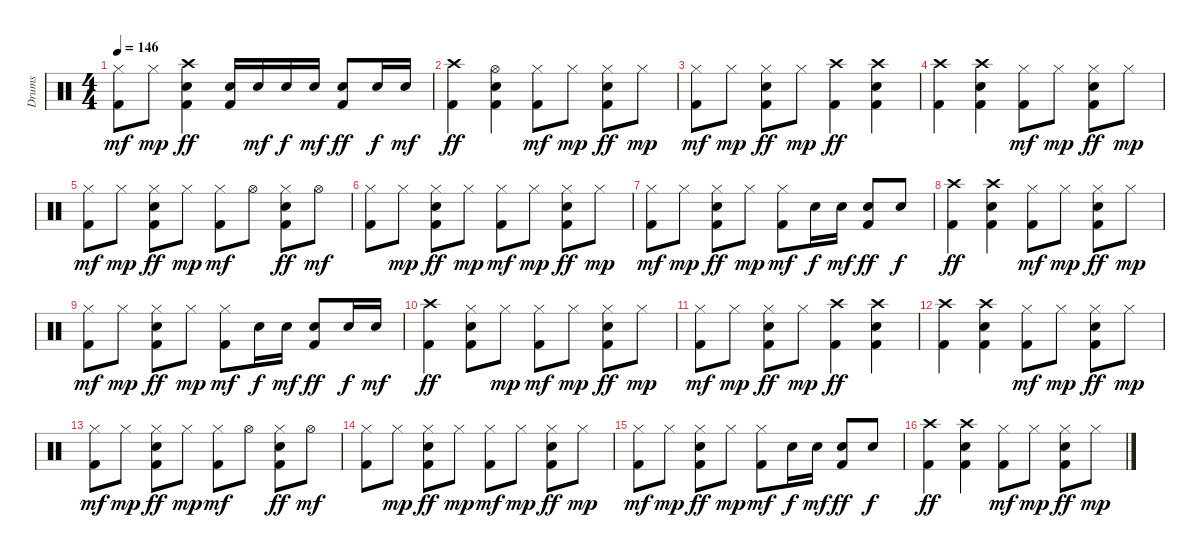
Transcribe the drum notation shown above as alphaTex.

\track ("Drums" "Drums") {instrument percussion}
\staff {score}
\articulation defaults
\ts (4 4)
\tempo 146
\clef neutral
\ks c
("Kick (hit) 2" "Hi-Hat (closed)").8{dy mf} "Hi-Hat (closed)".8{dy mp} ("Kick (hit) 2" "Snare (hit) 2" "Crash high (hit)").4{dy ff} ("Kick (hit) 2" "Snare (hit) 2").16 "Snare (hit) 2".16{dy mf} "Snare (hit) 2".16{dy f} "Snare (hit) 2".16{dy mf} ("Kick (hit) 2" "Snare (hit) 2").8{dy ff} "Snare (hit) 2".16{dy f} "Snare (hit) 2".16{dy mf} |
("Kick (hit) 2" "Crash high (hit)").4{dy ff} ("Kick (hit) 2" "Snare (hit) 2" "Hi-Hat (open)").4 ("Kick (hit) 2" "Hi-Hat (closed)").8{dy mf} "Hi-Hat (closed)".8{dy mp} ("Kick (hit) 2" "Snare (hit) 2" "Hi-Hat (closed)").8{dy ff} "Hi-Hat (closed)".8{dy mp} |
("Kick (hit) 2" "Hi-Hat (closed)").8{dy mf} "Hi-Hat (closed)".8{dy mp} ("Kick (hit) 2" "Snare (hit) 2" "Hi-Hat (closed)").8{dy ff} "Hi-Hat (closed)".8{dy mp} ("Kick (hit) 2" "Crash high (hit)").4{dy ff} ("Kick (hit) 2" "Snare (hit) 2" "Crash high (hit)").4 |
("Kick (hit) 2" "Crash high (hit)").4 ("Kick (hit) 2" "Snare (hit) 2" "Crash high (hit)").4 ("Kick (hit) 2" "Hi-Hat (closed)").8{dy mf} "Hi-Hat (closed)".8{dy mp} ("Kick (hit) 2" "Snare (hit) 2" "Hi-Hat (closed)").8{dy ff} "Hi-Hat (closed)".8{dy mp} |
("Kick (hit) 2" "Hi-Hat (closed)").8{dy mf} "Hi-Hat (closed)".8{dy mp} ("Kick (hit) 2" "Snare (hit) 2" "Hi-Hat (closed)").8{dy ff} "Hi-Hat (closed)".8{dy mp} ("Kick (hit) 2" "Hi-Hat (closed)").8{dy mf} "Hi-Hat (open)".8 ("Kick (hit) 2" "Snare (hit) 2" "Hi-Hat (closed)").8{dy ff} "Hi-Hat (open)".8{dy mf} |
("Kick (hit) 2" "Hi-Hat (closed)").8 "Hi-Hat (closed)".8{dy mp} ("Kick (hit) 2" "Snare (hit) 2" "Hi-Hat (closed)").8{dy ff} "Hi-Hat (closed)".8{dy mp} ("Kick (hit) 2" "Hi-Hat (closed)").8{dy mf} "Hi-Hat (closed)".8{dy mp} ("Kick (hit) 2" "Snare (hit) 2" "Hi-Hat (closed)").8{dy ff} "Hi-Hat (closed)".8{dy mp} |
("Kick (hit) 2" "Hi-Hat (closed)").8{dy mf} "Hi-Hat (closed)".8{dy mp} ("Kick (hit) 2" "Snare (hit) 2" "Hi-Hat (closed)").8{dy ff} "Hi-Hat (closed)".8{dy mp} ("Kick (hit) 2" "Hi-Hat (closed)").8{dy mf} "Snare (hit) 2".16{dy f} "Snare (hit) 2".16{dy mf} ("Kick (hit) 2" "Snare (hit) 2").8{dy ff} "Snare (hit) 2".8{dy f} |
("Kick (hit) 2" "Crash high (hit)").4{dy ff} ("Kick (hit) 2" "Snare (hit) 2" "Crash high (hit)").4 ("Kick (hit) 2" "Hi-Hat (closed)").8{dy mf} "Hi-Hat (closed)".8{dy mp} ("Kick (hit) 2" "Snare (hit) 2" "Hi-Hat (closed)").8{dy ff} "Hi-Hat (closed)".8{dy mp} |
("Kick (hit) 2" "Hi-Hat (closed)").8{dy mf} "Hi-Hat (closed)".8{dy mp} ("Kick (hit) 2" "Snare (hit) 2" "Hi-Hat (closed)").8{dy ff} "Hi-Hat (closed)".8{dy mp} ("Kick (hit) 2" "Hi-Hat (closed)").8{dy mf} "Snare (hit) 2".16{dy f} "Snare (hit) 2".16{dy mf} ("Kick (hit) 2" "Snare (hit) 2").8{dy ff} "Snare (hit) 2".16{dy f} "Snare (hit) 2".16{dy mf} |
("Kick (hit) 2" "Crash high (hit)").4{dy ff} ("Kick (hit) 2" "Hi-Hat (closed)" "Snare (hit) 2").8 "Hi-Hat (closed)".8{dy mp} ("Kick (hit) 2" "Hi-Hat (closed)").8{dy mf} "Hi-Hat (closed)".8{dy mp} ("Kick (hit) 2" "Hi-Hat (closed)" "Snare (hit) 2").8{dy ff} "Hi-Hat (closed)".8{dy mp} |
("Kick (hit) 2" "Hi-Hat (closed)").8{dy mf} "Hi-Hat (closed)".8{dy mp} ("Kick (hit) 2" "Snare (hit) 2" "Hi-Hat (closed)").8{dy ff} "Hi-Hat (closed)".8{dy mp} ("Kick (hit) 2" "Crash high (hit)").4{dy ff} ("Kick (hit) 2" "Snare (hit) 2" "Crash high (hit)").4 |
("Kick (hit) 2" "Crash high (hit)").4 ("Kick (hit) 2" "Snare (hit) 2" "Crash high (hit)").4 ("Kick (hit) 2" "Hi-Hat (closed)").8{dy mf} "Hi-Hat (closed)".8{dy mp} ("Kick (hit) 2" "Snare (hit) 2" "Hi-Hat (closed)").8{dy ff} "Hi-Hat (closed)".8{dy mp} |
("Kick (hit) 2" "Hi-Hat (closed)").8{dy mf} "Hi-Hat (closed)".8{dy mp} ("Kick (hit) 2" "Snare (hit) 2" "Hi-Hat (closed)").8{dy ff} "Hi-Hat (closed)".8{dy mp} ("Kick (hit) 2" "Hi-Hat (closed)").8{dy mf} "Hi-Hat (open)".8 ("Kick (hit) 2" "Snare (hit) 2" "Hi-Hat (closed)").8{dy ff} "Hi-Hat (open)".8{dy mf} |
("Kick (hit) 2" "Hi-Hat (closed)").8 "Hi-Hat (closed)".8{dy mp} ("Kick (hit) 2" "Snare (hit) 2" "Hi-Hat (closed)").8{dy ff} "Hi-Hat (closed)".8{dy mp} ("Kick (hit) 2" "Hi-Hat (closed)").8{dy mf} "Hi-Hat (closed)".8{dy mp} ("Kick (hit) 2" "Snare (hit) 2" "Hi-Hat (closed)").8{dy ff} "Hi-Hat (closed)".8{dy mp} |
("Kick (hit) 2" "Hi-Hat (closed)").8{dy mf} "Hi-Hat (closed)".8{dy mp} ("Kick (hit) 2" "Snare (hit) 2" "Hi-Hat (closed)").8{dy ff} "Hi-Hat (closed)".8{dy mp} ("Kick (hit) 2" "Hi-Hat (closed)").8{dy mf} "Snare (hit) 2".16{dy f} "Snare (hit) 2".16{dy mf} ("Kick (hit) 2" "Snare (hit) 2").8{dy ff} "Snare (hit) 2".8{dy f} |
("Kick (hit) 2" "Crash high (hit)").4{dy ff volume 0} ("Kick (hit) 2" "Snare (hit) 2" "Crash high (hit)").4 ("Kick (hit) 2" "Hi-Hat (closed)").8{dy mf} "Hi-Hat (closed)".8{dy mp} ("Kick (hit) 2" "Snare (hit) 2" "Hi-Hat (closed)").8{dy ff} "Hi-Hat (closed)".8{dy mp}
